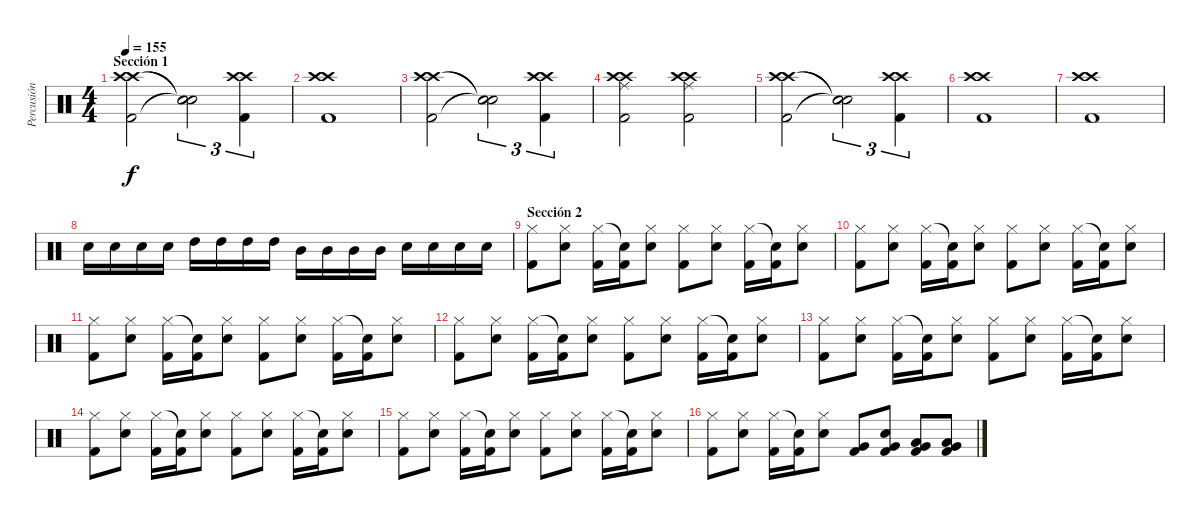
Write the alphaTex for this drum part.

\track ("Percusión" "Percusión") {instrument percussion}
\staff {score}
\articulation defaults
\ts (4 4)
\section ("" "Sección 1")
\tempo 155
\clef neutral
\ks c
("Crash high (hit)" "Crash high (hit)" "Kick (hit) 2").2{dy f} ("Snare (hit)"{t} "Snare (hit)"{t} "Snare (hit)"{t}).2{tu (3 2)} ("Crash high (hit)" "Crash high (hit)" "Kick (hit) 2").4{tu (3 2)} |
("Crash high (hit)" "Crash high (hit)" "Kick (hit) 2").1 |
("Crash high (hit)" "Crash high (hit)" "Kick (hit) 2").2 ("Snare (hit)"{t} "Snare (hit)"{t} "Snare (hit)"{t}).2{tu (3 2)} ("Crash high (hit)" "Crash high (hit)" "Kick (hit) 2").4{tu (3 2)} |
("Crash high (hit)" "Crash high (hit)" "Ride (middle)" "Kick (hit) 2").2 ("Crash high (hit)" "Crash high (hit)" "Ride (middle)" "Kick (hit) 2").2 |
("Crash high (hit)" "Crash high (hit)" "Kick (hit) 2").2 ("Snare (hit)"{t} "Snare (hit)"{t} "Snare (hit)"{t}).2{tu (3 2)} ("Crash high (hit)" "Crash high (hit)" "Kick (hit) 2").4{tu (3 2)} |
("Crash high (hit)" "Crash high (hit)" "Kick (hit) 2").1 |
("Crash high (hit)" "Crash high (hit)" "Kick (hit) 2").1 |
"Electric Snare (hit)".16 "Electric Snare (hit)".16 "Electric Snare (hit)".16 "Electric Snare (hit)".16 "High Tom (hit)".16 "High Tom (hit)".16 "High Tom (hit)".16 "High Tom (hit)".16 "Mid Tom (hit)".16 "Mid Tom (hit)".16 "Mid Tom (hit)".16 "Mid Tom (hit)".16 "Electric Snare (hit)".16 "Electric Snare (hit)".16 "Electric Snare (hit)".16 "Electric Snare (hit)".16 |
\section ("" "Sección 2")
("Hi-Hat (closed)" "Kick (hit) 2").8 ("Hi-Hat (closed)" "Electric Snare (hit)").8 ("Hi-Hat (closed)" "Kick (hit) 2").16 ("Snare (hit)"{t} "Kick (hit) 2").16 ("Hi-Hat (closed)" "Electric Snare (hit)").8 ("Hi-Hat (closed)" "Kick (hit) 2").8 ("Hi-Hat (closed)" "Electric Snare (hit)").8 ("Hi-Hat (closed)" "Kick (hit) 2").16 ("Snare (hit)"{t} "Kick (hit) 2").16 ("Hi-Hat (closed)" "Electric Snare (hit)").8 |
("Hi-Hat (closed)" "Kick (hit) 2").8 ("Hi-Hat (closed)" "Electric Snare (hit)").8 ("Hi-Hat (closed)" "Kick (hit) 2").16 ("Snare (hit)"{t} "Kick (hit) 2").16 ("Hi-Hat (closed)" "Electric Snare (hit)").8 ("Hi-Hat (closed)" "Kick (hit) 2").8 ("Hi-Hat (closed)" "Electric Snare (hit)").8 ("Hi-Hat (closed)" "Kick (hit) 2").16 ("Snare (hit)"{t} "Kick (hit) 2").16 ("Hi-Hat (closed)" "Electric Snare (hit)").8 |
("Hi-Hat (closed)" "Kick (hit) 2").8 ("Hi-Hat (closed)" "Electric Snare (hit)").8 ("Hi-Hat (closed)" "Kick (hit) 2").16 ("Snare (hit)"{t} "Kick (hit) 2").16 ("Hi-Hat (closed)" "Electric Snare (hit)").8 ("Hi-Hat (closed)" "Kick (hit) 2").8 ("Hi-Hat (closed)" "Electric Snare (hit)").8 ("Hi-Hat (closed)" "Kick (hit) 2").16 ("Snare (hit)"{t} "Kick (hit) 2").16 ("Hi-Hat (closed)" "Electric Snare (hit)").8 |
("Hi-Hat (closed)" "Kick (hit) 2").8 ("Hi-Hat (closed)" "Electric Snare (hit)").8 ("Hi-Hat (closed)" "Kick (hit) 2").16 ("Snare (hit)"{t} "Kick (hit) 2").16 ("Hi-Hat (closed)" "Electric Snare (hit)").8 ("Hi-Hat (closed)" "Kick (hit) 2").8 ("Hi-Hat (closed)" "Electric Snare (hit)").8 ("Hi-Hat (closed)" "Kick (hit) 2").16 ("Snare (hit)"{t} "Kick (hit) 2").16 ("Hi-Hat (closed)" "Electric Snare (hit)").8 |
("Hi-Hat (closed)" "Kick (hit) 2").8 ("Hi-Hat (closed)" "Electric Snare (hit)").8 ("Hi-Hat (closed)" "Kick (hit) 2").16 ("Snare (hit)"{t} "Kick (hit) 2").16 ("Hi-Hat (closed)" "Electric Snare (hit)").8 ("Hi-Hat (closed)" "Kick (hit) 2").8 ("Hi-Hat (closed)" "Electric Snare (hit)").8 ("Hi-Hat (closed)" "Kick (hit) 2").16 ("Snare (hit)"{t} "Kick (hit) 2").16 ("Hi-Hat (closed)" "Electric Snare (hit)").8 |
("Hi-Hat (closed)" "Kick (hit) 2").8 ("Hi-Hat (closed)" "Electric Snare (hit)").8 ("Hi-Hat (closed)" "Kick (hit) 2").16 ("Snare (hit)"{t} "Kick (hit) 2").16 ("Hi-Hat (closed)" "Electric Snare (hit)").8 ("Hi-Hat (closed)" "Kick (hit) 2").8 ("Hi-Hat (closed)" "Electric Snare (hit)").8 ("Hi-Hat (closed)" "Kick (hit) 2").16 ("Snare (hit)"{t} "Kick (hit) 2").16 ("Hi-Hat (closed)" "Electric Snare (hit)").8 |
("Hi-Hat (closed)" "Kick (hit) 2").8 ("Hi-Hat (closed)" "Electric Snare (hit)").8 ("Hi-Hat (closed)" "Kick (hit) 2").16 ("Snare (hit)"{t} "Kick (hit) 2").16 ("Hi-Hat (closed)" "Electric Snare (hit)").8 ("Hi-Hat (closed)" "Kick (hit) 2").8 ("Hi-Hat (closed)" "Electric Snare (hit)").8 ("Hi-Hat (closed)" "Kick (hit) 2").16 ("Snare (hit)"{t} "Kick (hit) 2").16 ("Hi-Hat (closed)" "Electric Snare (hit)").8 |
("Hi-Hat (closed)" "Kick (hit) 2").8 ("Hi-Hat (closed)" "Electric Snare (hit)").8 ("Hi-Hat (closed)" "Kick (hit) 2").16 ("Snare (hit)"{t} "Kick (hit) 2").16 ("Hi-Hat (closed)" "Electric Snare (hit)").8 ("Very Low Tom (hit)" "Kick (hit) 2").8 ("Very Low Tom (hit)" "Electric Snare (hit)" "Kick (hit) 2").8 ("Kick (hit) 2" "Very Low Tom (hit)" "Low Tom (hit)").8 ("Kick (hit) 2" "Very Low Tom (hit)" "Low Tom (hit)").8
